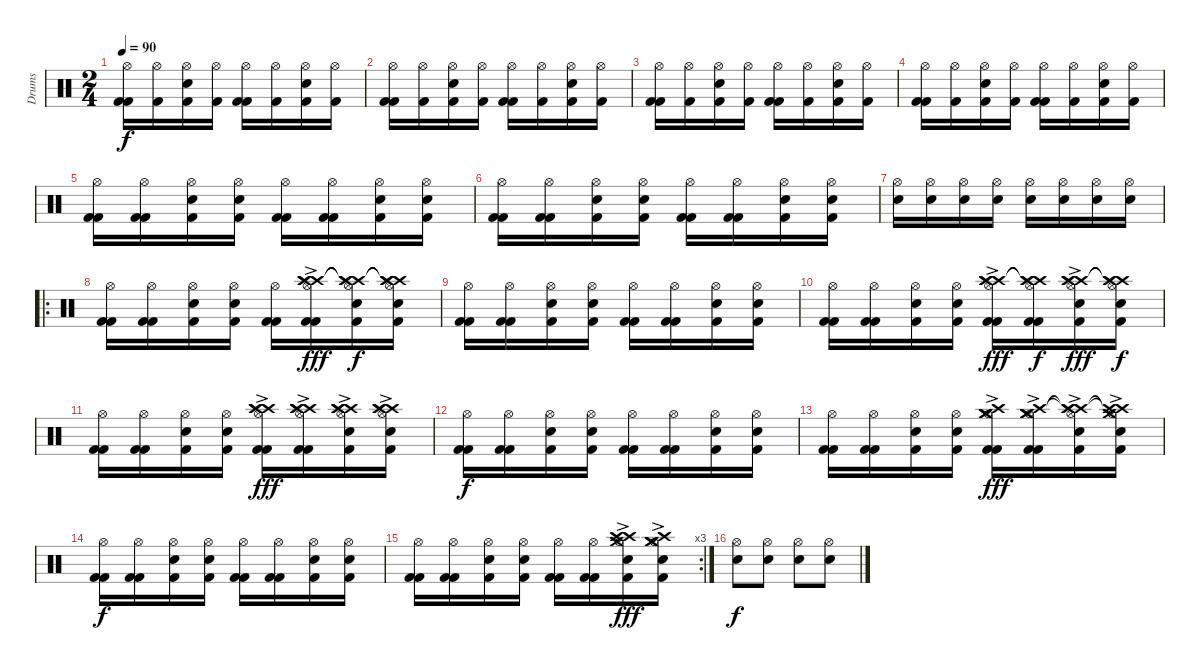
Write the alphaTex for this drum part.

\track ("Drums" "Drums") {instrument percussion}
\staff {score}
\articulation defaults
\ts (2 4)
\tempo 90
\clef neutral
\ks c
("Hi-Hat (open)" "Kick (hit) 2" "Kick (hit) 2").16{dy f} ("Hi-Hat (open)" "Kick (hit) 2").16 ("Hi-Hat (open)" "Electric Snare (hit)" "Kick (hit) 2").16 ("Hi-Hat (open)" "Kick (hit) 2").16 ("Hi-Hat (open)" "Kick (hit) 2" "Kick (hit) 2").16 ("Hi-Hat (open)" "Kick (hit) 2").16 ("Hi-Hat (open)" "Electric Snare (hit)" "Kick (hit) 2").16 ("Hi-Hat (open)" "Kick (hit) 2").16 |
("Hi-Hat (open)" "Kick (hit) 2" "Kick (hit) 2").16 ("Hi-Hat (open)" "Kick (hit) 2").16 ("Hi-Hat (open)" "Electric Snare (hit)" "Kick (hit) 2").16 ("Hi-Hat (open)" "Kick (hit) 2").16 ("Hi-Hat (open)" "Kick (hit) 2" "Kick (hit) 2").16 ("Hi-Hat (open)" "Kick (hit) 2").16 ("Hi-Hat (open)" "Electric Snare (hit)" "Kick (hit) 2").16 ("Hi-Hat (open)" "Kick (hit) 2").16 |
("Hi-Hat (open)" "Kick (hit) 2" "Kick (hit) 2").16 ("Hi-Hat (open)" "Kick (hit) 2").16 ("Hi-Hat (open)" "Electric Snare (hit)" "Kick (hit) 2").16 ("Hi-Hat (open)" "Kick (hit) 2").16 ("Hi-Hat (open)" "Kick (hit) 2" "Kick (hit) 2").16 ("Hi-Hat (open)" "Kick (hit) 2").16 ("Hi-Hat (open)" "Electric Snare (hit)" "Kick (hit) 2").16 ("Hi-Hat (open)" "Kick (hit) 2").16 |
("Hi-Hat (open)" "Kick (hit) 2" "Kick (hit) 2").16 ("Hi-Hat (open)" "Kick (hit) 2").16 ("Hi-Hat (open)" "Electric Snare (hit)" "Kick (hit) 2").16 ("Hi-Hat (open)" "Kick (hit) 2").16 ("Hi-Hat (open)" "Kick (hit) 2" "Kick (hit) 2").16 ("Hi-Hat (open)" "Kick (hit) 2").16 ("Hi-Hat (open)" "Electric Snare (hit)" "Kick (hit) 2").16 ("Hi-Hat (open)" "Kick (hit) 2").16 |
("Hi-Hat (open)" "Kick (hit) 2" "Kick (hit) 2").16 ("Hi-Hat (open)" "Kick (hit) 2" "Kick (hit) 2").16 ("Hi-Hat (open)" "Electric Snare (hit)" "Kick (hit) 2").16 ("Hi-Hat (open)" "Electric Snare (hit)" "Kick (hit) 2").16 ("Hi-Hat (open)" "Kick (hit) 2" "Kick (hit) 2").16 ("Hi-Hat (open)" "Kick (hit) 2" "Kick (hit) 2").16 ("Hi-Hat (open)" "Electric Snare (hit)" "Kick (hit) 2").16 ("Hi-Hat (open)" "Electric Snare (hit)" "Kick (hit) 2").16 |
("Hi-Hat (open)" "Kick (hit) 2" "Kick (hit) 2").16 ("Hi-Hat (open)" "Kick (hit) 2" "Kick (hit) 2").16 ("Hi-Hat (open)" "Electric Snare (hit)" "Kick (hit) 2").16 ("Hi-Hat (open)" "Electric Snare (hit)" "Kick (hit) 2").16 ("Hi-Hat (open)" "Kick (hit) 2" "Kick (hit) 2").16 ("Hi-Hat (open)" "Kick (hit) 2" "Kick (hit) 2").16 ("Hi-Hat (open)" "Electric Snare (hit)" "Kick (hit) 2").16 ("Hi-Hat (open)" "Electric Snare (hit)" "Kick (hit) 2").16 |
("Hi-Hat (open)" "Electric Snare (hit)").16 ("Hi-Hat (open)" "Electric Snare (hit)").16 ("Hi-Hat (open)" "Electric Snare (hit)").16 ("Hi-Hat (open)" "Electric Snare (hit)").16 ("Hi-Hat (open)" "Electric Snare (hit)").16 ("Hi-Hat (open)" "Electric Snare (hit)").16 ("Hi-Hat (open)" "Electric Snare (hit)").16 ("Hi-Hat (open)" "Electric Snare (hit)").16 |
\ro
("Hi-Hat (open)" "Kick (hit) 2" "Kick (hit) 2").16 ("Hi-Hat (open)" "Kick (hit) 2" "Kick (hit) 2").16 ("Hi-Hat (open)" "Electric Snare (hit)" "Kick (hit) 2").16 ("Hi-Hat (open)" "Electric Snare (hit)" "Kick (hit) 2").16 ("Hi-Hat (open)" "Kick (hit) 2" "Kick (hit) 2").16 ("Crash high (hit)"{ac} "Hi-Hat (open)" "Kick (hit) 2" "Kick (hit) 2" "Crash high (hit)"{ac} "Crash high (hit)"{ac}).16{dy fff} ("Crash high (hit)"{t} "Hi-Hat (open)" "Electric Snare (hit)" "Kick (hit) 2" "Crash high (hit)"{t} "Crash high (hit)"{t}).16{dy f} ("Crash high (hit)"{t} "Hi-Hat (open)" "Electric Snare (hit)" "Kick (hit) 2" "Crash high (hit)"{t} "Crash high (hit)"{t}).16 |
("Hi-Hat (open)" "Kick (hit) 2" "Kick (hit) 2").16 ("Hi-Hat (open)" "Kick (hit) 2" "Kick (hit) 2").16 ("Hi-Hat (open)" "Electric Snare (hit)" "Kick (hit) 2").16 ("Hi-Hat (open)" "Electric Snare (hit)" "Kick (hit) 2").16 ("Hi-Hat (open)" "Kick (hit) 2" "Kick (hit) 2").16 ("Hi-Hat (open)" "Kick (hit) 2" "Kick (hit) 2").16 ("Hi-Hat (open)" "Electric Snare (hit)" "Kick (hit) 2").16 ("Hi-Hat (open)" "Electric Snare (hit)" "Kick (hit) 2").16 |
("Hi-Hat (open)" "Kick (hit) 2" "Kick (hit) 2").16 ("Hi-Hat (open)" "Kick (hit) 2" "Kick (hit) 2").16 ("Hi-Hat (open)" "Electric Snare (hit)" "Kick (hit) 2").16 ("Hi-Hat (open)" "Electric Snare (hit)" "Kick (hit) 2").16 ("Crash high (hit)"{ac} "Hi-Hat (open)" "Kick (hit) 2" "Kick (hit) 2" "Crash high (hit)"{ac} "Crash high (hit)"{ac}).16{dy fff} ("Crash high (hit)"{t} "Hi-Hat (open)" "Kick (hit) 2" "Kick (hit) 2" "Crash high (hit)"{t} "Crash high (hit)"{t}).16{dy f} ("Crash high (hit)"{ac} "Hi-Hat (open)" "Electric Snare (hit)" "Kick (hit) 2" "Crash high (hit)"{ac} "Crash high (hit)").16{dy fff} ("Crash high (hit)"{t} "Hi-Hat (open)" "Electric Snare (hit)" "Kick (hit) 2" "Crash high (hit)"{t} "Crash high (hit)"{t}).16{dy f} |
("Hi-Hat (open)" "Kick (hit) 2" "Kick (hit) 2").16 ("Hi-Hat (open)" "Kick (hit) 2" "Kick (hit) 2").16 ("Hi-Hat (open)" "Electric Snare (hit)" "Kick (hit) 2").16 ("Hi-Hat (open)" "Electric Snare (hit)" "Kick (hit) 2").16 ("Crash high (hit)"{ac} "Hi-Hat (open)" "Kick (hit) 2" "Kick (hit) 2" "Crash high (hit)"{ac} "Crash high (hit)"{ac}).16{dy fff} ("Crash high (hit)"{ac} "Hi-Hat (open)" "Kick (hit) 2" "Kick (hit) 2" "Crash high (hit)"{ac} "Crash high (hit)"{ac}).16 ("Crash high (hit)"{ac} "Hi-Hat (open)" "Electric Snare (hit)" "Kick (hit) 2" "Crash high (hit)"{ac} "Crash high (hit)"{ac}).16 ("Crash high (hit)"{ac} "Hi-Hat (open)" "Electric Snare (hit)" "Kick (hit) 2" "Crash high (hit)"{ac} "Crash high (hit)"{ac}).16 |
("Hi-Hat (open)" "Kick (hit) 2" "Kick (hit) 2").16{dy f} ("Hi-Hat (open)" "Kick (hit) 2" "Kick (hit) 2").16 ("Hi-Hat (open)" "Electric Snare (hit)" "Kick (hit) 2").16 ("Hi-Hat (open)" "Electric Snare (hit)" "Kick (hit) 2").16 ("Hi-Hat (open)" "Kick (hit) 2" "Kick (hit) 2").16 ("Hi-Hat (open)" "Kick (hit) 2" "Kick (hit) 2").16 ("Hi-Hat (open)" "Electric Snare (hit)" "Kick (hit) 2").16 ("Hi-Hat (open)" "Electric Snare (hit)" "Kick (hit) 2").16 |
("Hi-Hat (open)" "Kick (hit) 2" "Kick (hit) 2").16 ("Hi-Hat (open)" "Kick (hit) 2" "Kick (hit) 2").16 ("Hi-Hat (open)" "Electric Snare (hit)" "Kick (hit) 2").16 ("Hi-Hat (open)" "Electric Snare (hit)" "Kick (hit) 2").16 ("Crash high (hit)"{ac} "Hi-Hat (open)" "Kick (hit) 2" "Kick (hit) 2" "Crash medium (hit)"{ac} "Crash medium (hit)"{ac}).16{dy fff} ("Crash medium (hit)"{ac} "Hi-Hat (open)" "Kick (hit) 2" "Kick (hit) 2" "Crash high (hit)"{ac} "Crash medium (hit)"{ac}).16 ("Crash high (hit)"{t} "Hi-Hat (open)" "Electric Snare (hit)" "Kick (hit) 2" "Crash high (hit)"{t} "Crash high (hit)"{ac}).16 ("Crash medium (hit)"{t} "Hi-Hat (open)" "Electric Snare (hit)" "Kick (hit) 2" "Crash high (hit)"{t} "Crash high (hit)"{ac}).16 |
("Hi-Hat (open)" "Kick (hit) 2" "Kick (hit) 2").16{dy f} ("Hi-Hat (open)" "Kick (hit) 2" "Kick (hit) 2").16 ("Hi-Hat (open)" "Electric Snare (hit)" "Kick (hit) 2").16 ("Hi-Hat (open)" "Electric Snare (hit)" "Kick (hit) 2").16 ("Hi-Hat (open)" "Kick (hit) 2" "Kick (hit) 2").16 ("Hi-Hat (open)" "Kick (hit) 2" "Kick (hit) 2").16 ("Hi-Hat (open)" "Electric Snare (hit)" "Kick (hit) 2").16 ("Hi-Hat (open)" "Electric Snare (hit)" "Kick (hit) 2").16 |
\rc 3
("Hi-Hat (open)" "Kick (hit) 2" "Kick (hit) 2").16 ("Hi-Hat (open)" "Kick (hit) 2" "Kick (hit) 2").16 ("Hi-Hat (open)" "Electric Snare (hit)" "Kick (hit) 2").16 ("Hi-Hat (open)" "Electric Snare (hit)" "Kick (hit) 2").16 ("Hi-Hat (open)" "Kick (hit) 2" "Kick (hit) 2").16 ("Hi-Hat (open)" "Kick (hit) 2" "Kick (hit) 2").16 ("Crash high (hit)"{ac} "Hi-Hat (open)" "Electric Snare (hit)" "Kick (hit) 2" "Crash high (hit)"{ac} "Crash medium (hit)"{ac}).16{dy fff} ("Crash medium (hit)"{ac} "Hi-Hat (open)" "Electric Snare (hit)" "Kick (hit) 2" "Crash high (hit)"{ac} "Crash medium (hit)"{ac}).16 |
("Hi-Hat (open)" "Electric Snare (hit)").8{dy f} ("Hi-Hat (open)" "Electric Snare (hit)").8 ("Hi-Hat (open)" "Electric Snare (hit)").8 ("Hi-Hat (open)" "Electric Snare (hit)").8
